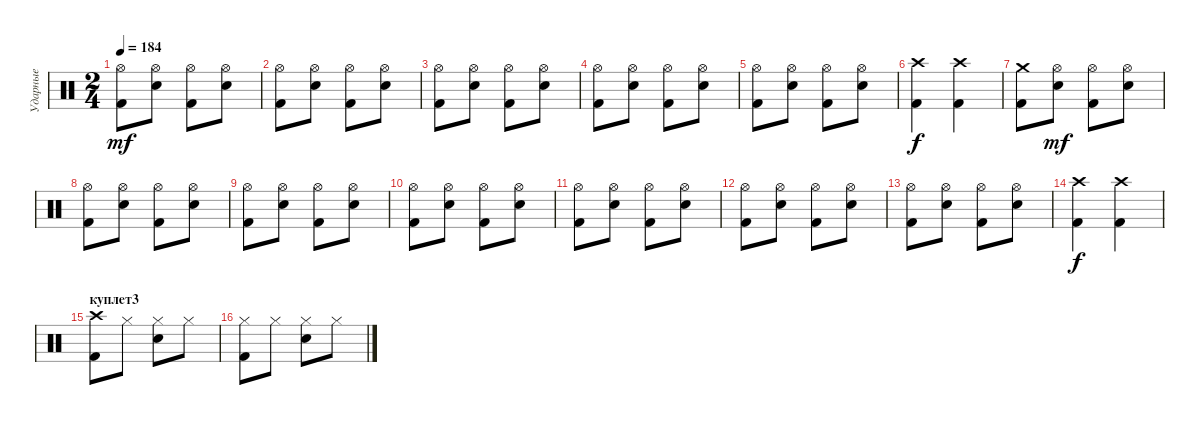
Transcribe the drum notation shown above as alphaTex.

\track ("Ударные" "Ударные") {instrument percussion}
\staff {score}
\articulation defaults
\ts (2 4)
\tempo 184
\clef neutral
\ks c
("Kick (hit) 2" "Hi-Hat (open)").8{dy mf} ("Snare (hit) 2" "Hi-Hat (open)").8 ("Kick (hit) 2" "Hi-Hat (open)").8 ("Snare (hit) 2" "Hi-Hat (open)").8 |
("Kick (hit) 2" "Hi-Hat (open)").8 ("Snare (hit) 2" "Hi-Hat (open)").8 ("Kick (hit) 2" "Hi-Hat (open)").8 ("Snare (hit) 2" "Hi-Hat (open)").8 |
("Kick (hit) 2" "Hi-Hat (open)").8 ("Snare (hit) 2" "Hi-Hat (open)").8 ("Kick (hit) 2" "Hi-Hat (open)").8 ("Snare (hit) 2" "Hi-Hat (open)").8 |
("Kick (hit) 2" "Hi-Hat (open)").8 ("Snare (hit) 2" "Hi-Hat (open)").8 ("Kick (hit) 2" "Hi-Hat (open)").8 ("Snare (hit) 2" "Hi-Hat (open)").8 |
("Kick (hit) 2" "Hi-Hat (open)").8 ("Snare (hit) 2" "Hi-Hat (open)").8 ("Kick (hit) 2" "Hi-Hat (open)").8 ("Snare (hit) 2" "Hi-Hat (open)").8 |
("Kick (hit) 2" "Crash high (hit)").4{dy f} ("Kick (hit) 2" "Crash high (hit)").4 |
("Kick (hit) 2" "Crash medium (hit)").8 ("Snare (hit) 2" "Hi-Hat (open)").8{dy mf} ("Kick (hit) 2" "Hi-Hat (open)").8 ("Snare (hit) 2" "Hi-Hat (open)").8 |
("Kick (hit) 2" "Hi-Hat (open)").8 ("Snare (hit) 2" "Hi-Hat (open)").8 ("Kick (hit) 2" "Hi-Hat (open)").8 ("Snare (hit) 2" "Hi-Hat (open)").8 |
("Kick (hit) 2" "Hi-Hat (open)").8 ("Snare (hit) 2" "Hi-Hat (open)").8 ("Kick (hit) 2" "Hi-Hat (open)").8 ("Snare (hit) 2" "Hi-Hat (open)").8 |
("Kick (hit) 2" "Hi-Hat (open)").8 ("Snare (hit) 2" "Hi-Hat (open)").8 ("Kick (hit) 2" "Hi-Hat (open)").8 ("Snare (hit) 2" "Hi-Hat (open)").8 |
("Kick (hit) 2" "Hi-Hat (open)").8 ("Snare (hit) 2" "Hi-Hat (open)").8 ("Kick (hit) 2" "Hi-Hat (open)").8 ("Snare (hit) 2" "Hi-Hat (open)").8 |
("Kick (hit) 2" "Hi-Hat (open)").8 ("Snare (hit) 2" "Hi-Hat (open)").8 ("Kick (hit) 2" "Hi-Hat (open)").8 ("Snare (hit) 2" "Hi-Hat (open)").8 |
("Kick (hit) 2" "Hi-Hat (open)").8 ("Snare (hit) 2" "Hi-Hat (open)").8 ("Kick (hit) 2" "Hi-Hat (open)").8 ("Snare (hit) 2" "Hi-Hat (open)").8 |
("Kick (hit) 2" "Crash high (hit)").4{dy f} ("Kick (hit) 2" "Crash high (hit)").4 |
\section ("" "куплет3")
("Crash high (hit)" "Kick (hit) 2").8 "Hi-Hat (closed)".8 ("Hi-Hat (closed)" "Snare (hit) 2").8 "Hi-Hat (closed)".8 |
("Hi-Hat (closed)" "Kick (hit) 2").8 "Hi-Hat (closed)".8 ("Hi-Hat (closed)" "Snare (hit) 2").8 "Hi-Hat (closed)".8
